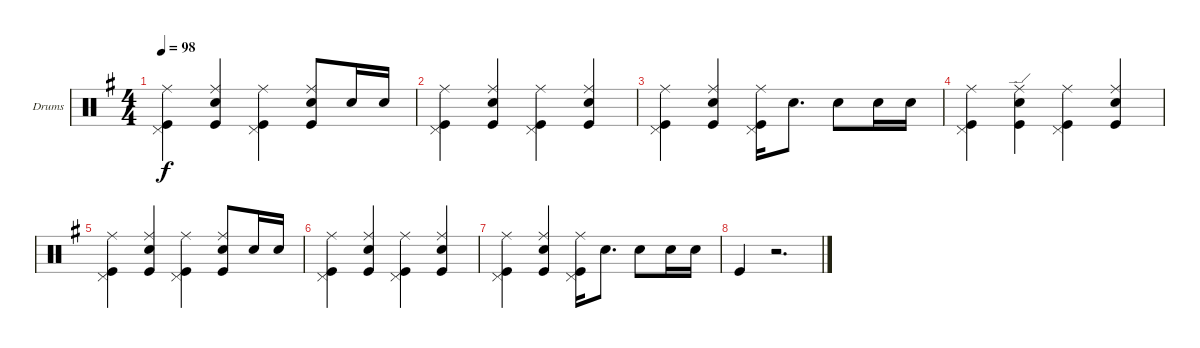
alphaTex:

\defaultSystemsLayout 4
\bracketExtendMode groupsimilarinstruments
\firstSystemTrackNameOrientation horizontal
\otherSystemsTrackNameOrientation horizontal
\track ("Matt Helders" "Drums") {multiBarRest instrument percussion}
\staff {score}
\articulation defaults
\ts (4 4)
\tempo 98
\clef neutral
\ks g
("Kick (hit)" "Pedal Hi-Hat (hit)" "Ride (middle)").4{dy f} ("Snare (hit) 2" "Kick (hit)" "Ride (middle)").4 ("Kick (hit)" "Pedal Hi-Hat (hit)" "Ride (middle)").4 ("Snare (hit) 2" "Kick (hit)" "Ride (middle)").8 "Snare (hit) 2".16 "Snare (hit) 2".16 |
("Kick (hit)" "Pedal Hi-Hat (hit)" "Ride (middle)").4 ("Snare (hit) 2" "Kick (hit)" "Ride (middle)").4 ("Kick (hit)" "Pedal Hi-Hat (hit)" "Ride (middle)").4 ("Snare (hit) 2" "Kick (hit)" "Ride (middle)").4 |
("Kick (hit)" "Pedal Hi-Hat (hit)" "Ride (middle)").4 ("Snare (hit) 2" "Kick (hit)" "Ride (middle)").4 ("Kick (hit)" "Pedal Hi-Hat (hit)" "Ride (middle)").16 "Snare (hit) 2".8{d} "Snare (hit) 2".8 "Snare (hit) 2".16 "Snare (hit) 2".16 |
("Kick (hit)" "Pedal Hi-Hat (hit)" "Ride (middle)").4 ("Snare (hit) 2" "Kick (hit)" "Ride (edge)").4 ("Kick (hit)" "Pedal Hi-Hat (hit)" "Ride (middle)").4 ("Snare (hit) 2" "Kick (hit)" "Ride (middle)").4 |
("Kick (hit)" "Pedal Hi-Hat (hit)" "Ride (middle)").4 ("Snare (hit) 2" "Kick (hit)" "Ride (middle)").4 ("Kick (hit)" "Pedal Hi-Hat (hit)" "Ride (middle)").4 ("Snare (hit) 2" "Kick (hit)" "Ride (middle)").8 "Snare (hit) 2".16 "Snare (hit) 2".16 |
("Kick (hit)" "Pedal Hi-Hat (hit)" "Ride (middle)").4 ("Snare (hit) 2" "Kick (hit)" "Ride (middle)").4 ("Kick (hit)" "Pedal Hi-Hat (hit)" "Ride (middle)").4 ("Snare (hit) 2" "Kick (hit)" "Ride (middle)").4 |
("Kick (hit)" "Pedal Hi-Hat (hit)" "Ride (middle)").4 ("Snare (hit) 2" "Kick (hit)" "Ride (middle)").4 ("Kick (hit)" "Pedal Hi-Hat (hit)" "Ride (middle)").16 "Snare (hit) 2".8{d} "Snare (hit) 2".8 "Snare (hit) 2".16 "Snare (hit) 2".16 |
"Kick (hit)".4 r.2{d}
